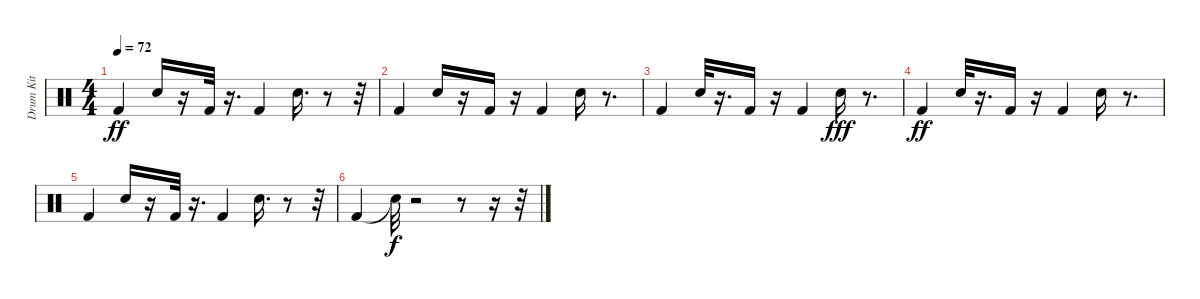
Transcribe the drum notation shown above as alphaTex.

\track ("Drum Kit" "Drum Kit") {instrument percussion}
\staff {score}
\articulation defaults
\ts (4 4)
\tempo 72
\clef neutral
\ks c "Kick (hit) 2".4{dy ff} "Electric Snare (hit)".16
r.16 "Kick (hit) 2".32 r.16{d} "Kick (hit) 2".4 "Electric Snare (hit)".16{d} r.8 r.32 |
"Kick (hit) 2".4 "Electric Snare (hit)".16 r.16 "Kick (hit) 2".16 r.16 "Kick (hit) 2".4 "Electric Snare (hit)".16 r.8{d} |
"Kick (hit) 2".4 "Electric Snare (hit)".32 r.16{d} "Kick (hit) 2".16 r.16 "Kick (hit) 2".4 "Electric Snare (hit)".16{dy fff} r.8{d} |
"Kick (hit) 2".4{dy ff} "Electric Snare (hit)".32 r.16{d} "Kick (hit) 2".16 r.16 "Kick (hit) 2".4 "Electric Snare (hit)".16 r.8{d} |
"Kick (hit) 2".4 "Electric Snare (hit)".16 r.16 "Kick (hit) 2".32 r.16{d} "Kick (hit) 2".4 "Electric Snare (hit)".16{d} r.8 r.32 |
"Kick (hit) 2".4 "Snare (hit)"{t}.32{dy f} r.2 r.8 r.16 r.32
